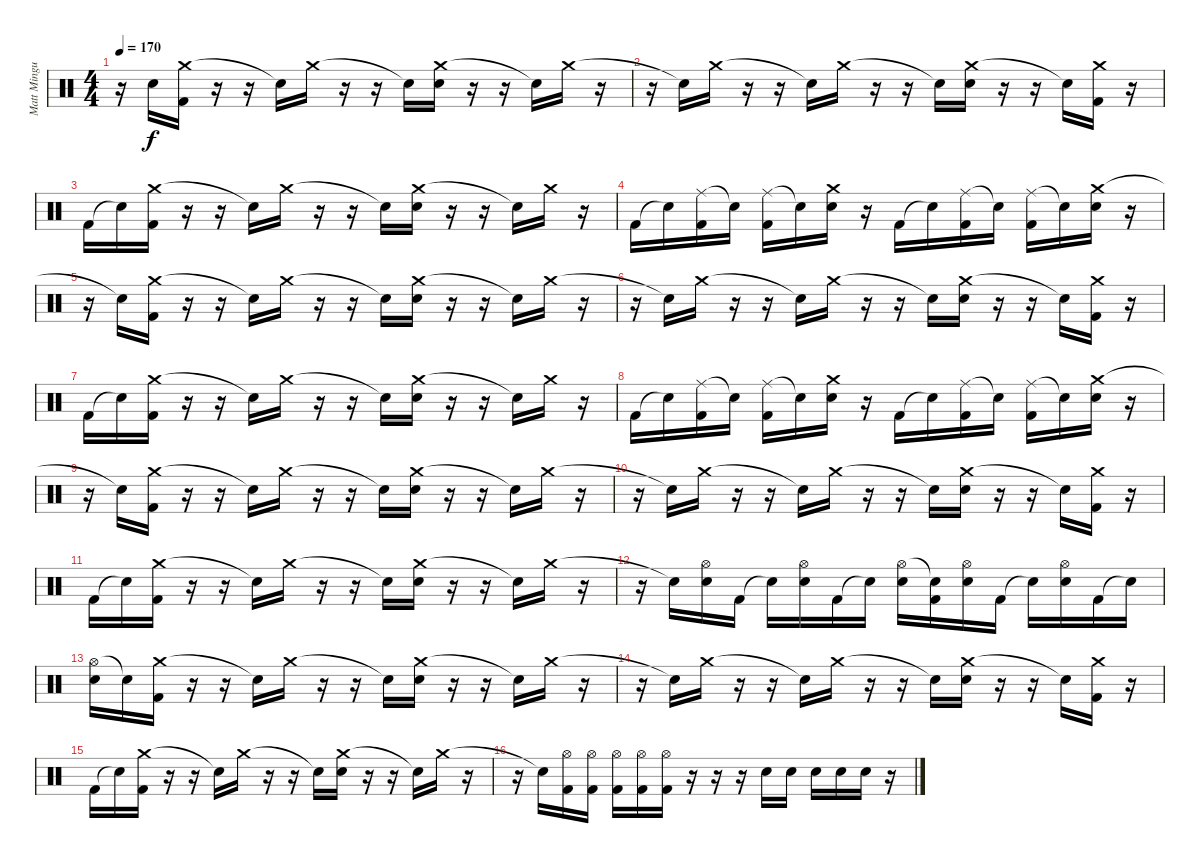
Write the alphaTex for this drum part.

\track ("Matt Mingus" "Matt Mingu") {instrument percussion}
\staff {score}
\articulation defaults
\ts (4 4)
\tempo 170
\clef neutral
\ks c
r.16{dy f} "Snare (hit)"{t}.16 ("Crash medium (hit)" "Kick (hit) 2").16 r.16 r.16 "Snare (hit)"{t}.16 "Crash medium (hit)".16 r.16 r.16 "Snare (hit)"{t}.16 ("Crash medium (hit)" "Electric Snare (hit)").16 r.16 r.16 "Snare (hit)"{t}.16 "Crash medium (hit)".16 r.16 |
r.16 "Snare (hit)"{t}.16 "Crash medium (hit)".16 r.16 r.16 "Snare (hit)"{t}.16 "Crash medium (hit)".16 r.16 r.16 "Snare (hit)"{t}.16 ("Crash medium (hit)" "Electric Snare (hit)").16 r.16 r.16 "Snare (hit)"{t}.16 ("Crash medium (hit)" "Kick (hit) 2").16 r.16 |
"Kick (hit) 2".16 "Snare (hit)"{t}.16 ("Crash medium (hit)" "Kick (hit) 2").16 r.16 r.16 "Snare (hit)"{t}.16 "Crash medium (hit)".16 r.16 r.16 "Snare (hit)"{t}.16 ("Crash medium (hit)" "Electric Snare (hit)").16 r.16 r.16 "Snare (hit)"{t}.16 "Crash medium (hit)".16 r.16 |
"Kick (hit) 2".16 "Snare (hit)"{t}.16 ("Ride (middle)" "Kick (hit) 2").16 "Snare (hit)"{t}.16 ("Ride (middle)" "Kick (hit) 2").16 "Snare (hit)"{t}.16 ("Crash medium (hit)" "Electric Snare (hit)").16 r.16 "Kick (hit) 2".16 "Snare (hit)"{t}.16 ("Ride (middle)" "Kick (hit) 2").16 "Snare (hit)"{t}.16 ("Ride (middle)" "Kick (hit) 2").16 "Snare (hit)"{t}.16 ("Crash medium (hit)" "Electric Snare (hit)").16 r.16 |
r.16 "Snare (hit)"{t}.16 ("Crash medium (hit)" "Kick (hit) 2").16 r.16 r.16 "Snare (hit)"{t}.16 "Crash medium (hit)".16 r.16 r.16 "Snare (hit)"{t}.16 ("Crash medium (hit)" "Electric Snare (hit)").16 r.16 r.16 "Snare (hit)"{t}.16 "Crash medium (hit)".16 r.16 |
r.16 "Snare (hit)"{t}.16 "Crash medium (hit)".16 r.16 r.16 "Snare (hit)"{t}.16 "Crash medium (hit)".16 r.16 r.16 "Snare (hit)"{t}.16 ("Crash medium (hit)" "Electric Snare (hit)").16 r.16 r.16 "Snare (hit)"{t}.16 ("Crash medium (hit)" "Kick (hit) 2").16 r.16 |
"Kick (hit) 2".16 "Snare (hit)"{t}.16 ("Crash medium (hit)" "Kick (hit) 2").16 r.16 r.16 "Snare (hit)"{t}.16 "Crash medium (hit)".16 r.16 r.16 "Snare (hit)"{t}.16 ("Crash medium (hit)" "Electric Snare (hit)").16 r.16 r.16 "Snare (hit)"{t}.16 "Crash medium (hit)".16 r.16 |
"Kick (hit) 2".16 "Snare (hit)"{t}.16 ("Ride (middle)" "Kick (hit) 2").16 "Snare (hit)"{t}.16 ("Ride (middle)" "Kick (hit) 2").16 "Snare (hit)"{t}.16 ("Crash medium (hit)" "Electric Snare (hit)").16 r.16 "Kick (hit) 2".16 "Snare (hit)"{t}.16 ("Ride (middle)" "Kick (hit) 2").16 "Snare (hit)"{t}.16 ("Ride (middle)" "Kick (hit) 2").16 "Snare (hit)"{t}.16 ("Crash medium (hit)" "Electric Snare (hit)").16 r.16 |
r.16 "Snare (hit)"{t}.16 ("Crash medium (hit)" "Kick (hit) 2").16 r.16 r.16 "Snare (hit)"{t}.16 "Crash medium (hit)".16 r.16 r.16 "Snare (hit)"{t}.16 ("Crash medium (hit)" "Electric Snare (hit)").16 r.16 r.16 "Snare (hit)"{t}.16 "Crash medium (hit)".16 r.16 |
r.16 "Snare (hit)"{t}.16 "Crash medium (hit)".16 r.16 r.16 "Snare (hit)"{t}.16 "Crash medium (hit)".16 r.16 r.16 "Snare (hit)"{t}.16 ("Crash medium (hit)" "Electric Snare (hit)").16 r.16 r.16 "Snare (hit)"{t}.16 ("Crash medium (hit)" "Kick (hit) 2").16 r.16 |
"Kick (hit) 2".16 "Snare (hit)"{t}.16 ("Crash medium (hit)" "Kick (hit) 2").16 r.16 r.16 "Snare (hit)"{t}.16 "Crash medium (hit)".16 r.16 r.16 "Snare (hit)"{t}.16 ("Crash medium (hit)" "Electric Snare (hit)").16 r.16 r.16 "Snare (hit)"{t}.16 "Crash medium (hit)".16 r.16 |
r.16 "Snare (hit)"{t}.16 ("Hi-Hat (open)" "Electric Snare (hit)").16 "Kick (hit) 2".16 "Snare (hit)"{t}.16 ("Hi-Hat (open)" "Electric Snare (hit)").16 "Kick (hit) 2".16 "Snare (hit)"{t}.16 ("Hi-Hat (open)" "Electric Snare (hit)").16 ("Snare (hit)"{t} "Kick (hit) 2").16 ("Hi-Hat (open)" "Electric Snare (hit)").16 "Kick (hit) 2".16 "Snare (hit)"{t}.16 ("Hi-Hat (open)" "Electric Snare (hit)").16 "Kick (hit) 2".16 "Snare (hit)"{t}.16 |
("Hi-Hat (open)" "Electric Snare (hit)").16 "Snare (hit)"{t}.16 ("Crash medium (hit)" "Kick (hit) 2").16 r.16 r.16 "Snare (hit)"{t}.16 "Crash medium (hit)".16 r.16 r.16 "Snare (hit)"{t}.16 ("Crash medium (hit)" "Electric Snare (hit)").16 r.16 r.16 "Snare (hit)"{t}.16 "Crash medium (hit)".16 r.16 |
r.16 "Snare (hit)"{t}.16 "Crash medium (hit)".16 r.16 r.16 "Snare (hit)"{t}.16 "Crash medium (hit)".16 r.16 r.16 "Snare (hit)"{t}.16 ("Crash medium (hit)" "Electric Snare (hit)").16 r.16 r.16 "Snare (hit)"{t}.16 ("Crash medium (hit)" "Kick (hit) 2").16 r.16 |
"Kick (hit) 2".16 "Snare (hit)"{t}.16 ("Crash medium (hit)" "Kick (hit) 2").16 r.16 r.16 "Snare (hit)"{t}.16 "Crash medium (hit)".16 r.16 r.16 "Snare (hit)"{t}.16 ("Crash medium (hit)" "Electric Snare (hit)").16 r.16 r.16 "Snare (hit)"{t}.16 "Crash medium (hit)".16 r.16 |
r.16 "Snare (hit)"{t}.16 ("Hi-Hat (open)" "Kick (hit) 2").16 ("Hi-Hat (open)" "Kick (hit) 2").16 ("Hi-Hat (open)" "Kick (hit) 2").16 ("Hi-Hat (open)" "Kick (hit) 2").16 ("Hi-Hat (open)" "Kick (hit) 2").16 r.16 r.16 r.16 "Electric Snare (hit)".16 "Electric Snare (hit)".16 "Electric Snare (hit)".16 "Electric Snare (hit)".16 "Electric Snare (hit)".16 r.16
